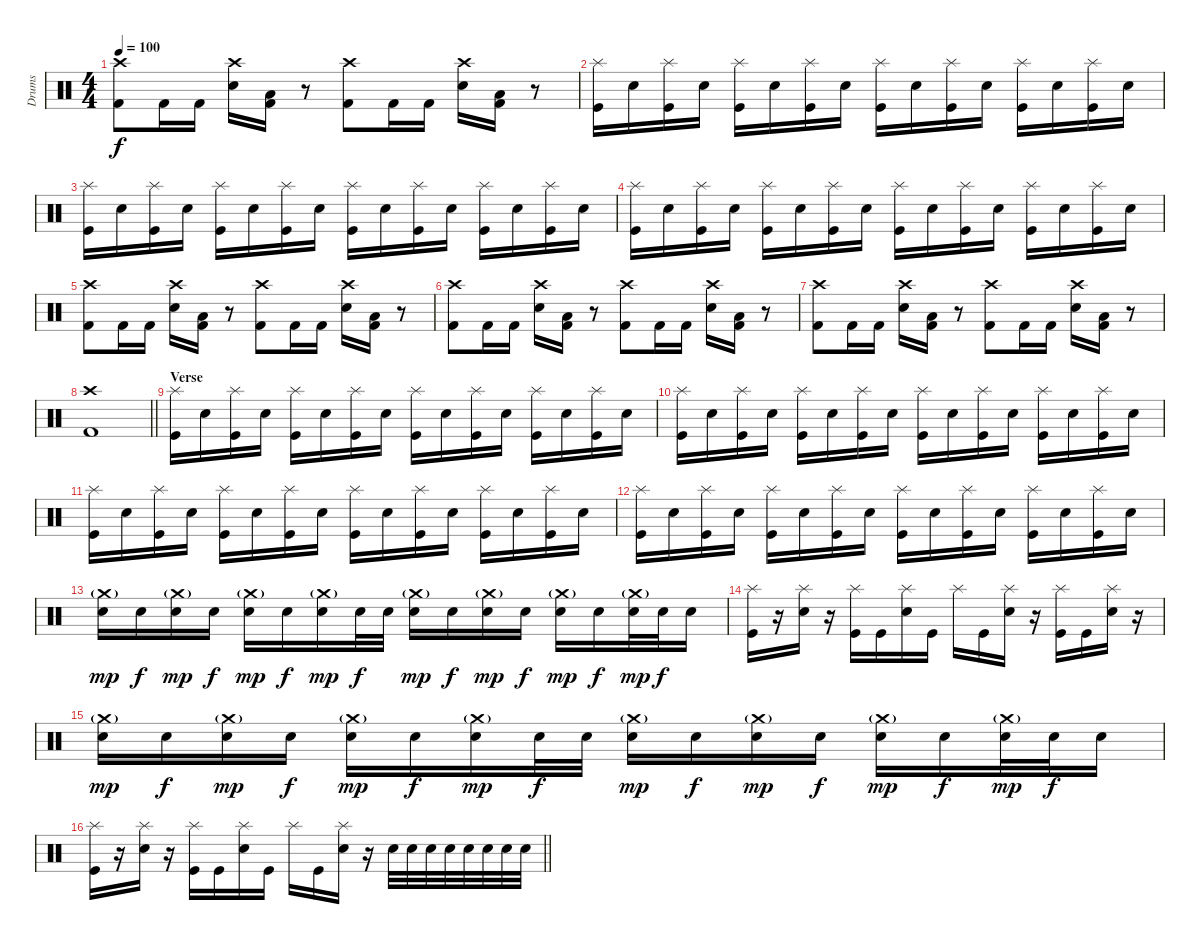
\track ("Drums" "Drums") {instrument percussion}
\staff {score}
\articulation defaults
\ts (4 4)
\tempo 100
\clef neutral
\ks c
("Crash high (hit)" "Kick (hit) 2").8{dy f} "Kick (hit) 2".16 "Kick (hit) 2".16 ("Crash high (hit)" "Electric Snare (hit)").16 ("Low Tom (hit)" "Kick (hit) 2").16 r.8 ("Crash high (hit)" "Kick (hit) 2").8 "Kick (hit) 2".16 "Kick (hit) 2".16 ("Crash high (hit)" "Electric Snare (hit)").16 ("Low Tom (hit)" "Kick (hit) 2").16 r.8 |
("Splash (hit)" "Kick (hit)").16 "Electric Snare (hit)".16 ("Splash (hit)" "Kick (hit)").16 "Electric Snare (hit)".16 ("Splash (hit)" "Kick (hit)").16 "Electric Snare (hit)".16 ("Splash (hit)" "Kick (hit)").16 "Electric Snare (hit)".16 ("Splash (hit)" "Kick (hit)").16 "Electric Snare (hit)".16 ("Splash (hit)" "Kick (hit)").16 "Electric Snare (hit)".16 ("Splash (hit)" "Kick (hit)").16 "Electric Snare (hit)".16 ("Splash (hit)" "Kick (hit)").16 "Electric Snare (hit)".16 |
("Splash (hit)" "Kick (hit)").16 "Electric Snare (hit)".16 ("Splash (hit)" "Kick (hit)").16 "Electric Snare (hit)".16 ("Splash (hit)" "Kick (hit)").16 "Electric Snare (hit)".16 ("Splash (hit)" "Kick (hit)").16 "Electric Snare (hit)".16 ("Splash (hit)" "Kick (hit)").16 "Electric Snare (hit)".16 ("Splash (hit)" "Kick (hit)").16 "Electric Snare (hit)".16 ("Splash (hit)" "Kick (hit)").16 "Electric Snare (hit)".16 ("Splash (hit)" "Kick (hit)").16 "Electric Snare (hit)".16 |
("Splash (hit)" "Kick (hit)").16 "Electric Snare (hit)".16 ("Splash (hit)" "Kick (hit)").16 "Electric Snare (hit)".16 ("Splash (hit)" "Kick (hit)").16 "Electric Snare (hit)".16 ("Splash (hit)" "Kick (hit)").16 "Electric Snare (hit)".16 ("Splash (hit)" "Kick (hit)").16 "Electric Snare (hit)".16 ("Splash (hit)" "Kick (hit)").16 "Electric Snare (hit)".16 ("Splash (hit)" "Kick (hit)").16 "Electric Snare (hit)".16 ("Splash (hit)" "Kick (hit)").16 "Electric Snare (hit)".16 |
("Crash high (hit)" "Kick (hit) 2").8 "Kick (hit) 2".16 "Kick (hit) 2".16 ("Crash high (hit)" "Electric Snare (hit)").16 ("Low Tom (hit)" "Kick (hit) 2").16 r.8 ("Crash high (hit)" "Kick (hit) 2").8 "Kick (hit) 2".16 "Kick (hit) 2".16 ("Crash high (hit)" "Electric Snare (hit)").16 ("Low Tom (hit)" "Kick (hit) 2").16 r.8 |
("Crash high (hit)" "Kick (hit) 2").8 "Kick (hit) 2".16 "Kick (hit) 2".16 ("Crash high (hit)" "Electric Snare (hit)").16 ("Low Tom (hit)" "Kick (hit) 2").16 r.8 ("Crash high (hit)" "Kick (hit) 2").8 "Kick (hit) 2".16 "Kick (hit) 2".16 ("Crash high (hit)" "Electric Snare (hit)").16 ("Low Tom (hit)" "Kick (hit) 2").16 r.8 |
("Crash high (hit)" "Kick (hit) 2").8 "Kick (hit) 2".16 "Kick (hit) 2".16 ("Crash high (hit)" "Electric Snare (hit)").16 ("Low Tom (hit)" "Kick (hit) 2").16 r.8 ("Crash high (hit)" "Kick (hit) 2").8 "Kick (hit) 2".16 "Kick (hit) 2".16 ("Crash high (hit)" "Electric Snare (hit)").16 ("Low Tom (hit)" "Kick (hit) 2").16 r.8 |
\barLineRight lightlight
("Crash high (hit)" "Kick (hit) 2").1 |
\section ("" "Verse")
("Splash (hit)" "Kick (hit)").16 "Electric Snare (hit)".16 ("Splash (hit)" "Kick (hit)").16 "Electric Snare (hit)".16 ("Splash (hit)" "Kick (hit)").16 "Electric Snare (hit)".16 ("Splash (hit)" "Kick (hit)").16 "Electric Snare (hit)".16 ("Splash (hit)" "Kick (hit)").16 "Electric Snare (hit)".16 ("Splash (hit)" "Kick (hit)").16 "Electric Snare (hit)".16 ("Splash (hit)" "Kick (hit)").16 "Electric Snare (hit)".16 ("Splash (hit)" "Kick (hit)").16 "Electric Snare (hit)".16 |
("Splash (hit)" "Kick (hit)").16 "Electric Snare (hit)".16 ("Splash (hit)" "Kick (hit)").16 "Electric Snare (hit)".16 ("Splash (hit)" "Kick (hit)").16 "Electric Snare (hit)".16 ("Splash (hit)" "Kick (hit)").16 "Electric Snare (hit)".16 ("Splash (hit)" "Kick (hit)").16 "Electric Snare (hit)".16 ("Splash (hit)" "Kick (hit)").16 "Electric Snare (hit)".16 ("Splash (hit)" "Kick (hit)").16 "Electric Snare (hit)".16 ("Splash (hit)" "Kick (hit)").16 "Electric Snare (hit)".16 |
("Splash (hit)" "Kick (hit)").16 "Electric Snare (hit)".16 ("Splash (hit)" "Kick (hit)").16 "Electric Snare (hit)".16 ("Splash (hit)" "Kick (hit)").16 "Electric Snare (hit)".16 ("Splash (hit)" "Kick (hit)").16 "Electric Snare (hit)".16 ("Splash (hit)" "Kick (hit)").16 "Electric Snare (hit)".16 ("Splash (hit)" "Kick (hit)").16 "Electric Snare (hit)".16 ("Splash (hit)" "Kick (hit)").16 "Electric Snare (hit)".16 ("Splash (hit)" "Kick (hit)").16 "Electric Snare (hit)".16 |
("Splash (hit)" "Kick (hit)").16 "Electric Snare (hit)".16 ("Splash (hit)" "Kick (hit)").16 "Electric Snare (hit)".16 ("Splash (hit)" "Kick (hit)").16 "Electric Snare (hit)".16 ("Splash (hit)" "Kick (hit)").16 "Electric Snare (hit)".16 ("Splash (hit)" "Kick (hit)").16 "Electric Snare (hit)".16 ("Splash (hit)" "Kick (hit)").16 "Electric Snare (hit)".16 ("Splash (hit)" "Kick (hit)").16 "Electric Snare (hit)".16 ("Splash (hit)" "Kick (hit)").16 "Electric Snare (hit)".16 |
("Crash medium (hit)"{g} "Electric Snare (hit)").16{dy mp} "Electric Snare (hit)".16{dy f} ("Crash medium (hit)"{g} "Electric Snare (hit)").16{dy mp} "Electric Snare (hit)".16{dy f} ("Crash medium (hit)"{g} "Electric Snare (hit)").16{dy mp} "Electric Snare (hit)".16{dy f} ("Crash medium (hit)"{g} "Electric Snare (hit)").16{dy mp} "Electric Snare (hit)".32{dy f} "Electric Snare (hit)".32 ("Crash medium (hit)"{g} "Electric Snare (hit)").16{dy mp} "Electric Snare (hit)".16{dy f} ("Crash medium (hit)"{g} "Electric Snare (hit)").16{dy mp} "Electric Snare (hit)".16{dy f} ("Crash medium (hit)"{g} "Electric Snare (hit)").16{dy mp} "Electric Snare (hit)".16{dy f} ("Crash medium (hit)"{g} "Electric Snare (hit)").32{dy mp} "Electric Snare (hit)".32{dy f} "Electric Snare (hit)".16 |
("Splash (hit)" "Kick (hit)").16 r.16 ("Splash (hit)" "Electric Snare (hit)").16 r.16 ("Splash (hit)" "Kick (hit)").16 "Kick (hit)".16 ("Splash (hit)" "Electric Snare (hit)").16 "Kick (hit)".16 "Splash (hit)".16 "Kick (hit)".16 ("Splash (hit)" "Electric Snare (hit)").16 r.16 ("Splash (hit)" "Kick (hit)").16 "Kick (hit)".16 ("Splash (hit)" "Electric Snare (hit)").16 r.16 |
("Crash medium (hit)"{g} "Electric Snare (hit)").16{dy mp} "Electric Snare (hit)".16{dy f} ("Crash medium (hit)"{g} "Electric Snare (hit)").16{dy mp} "Electric Snare (hit)".16{dy f} ("Crash medium (hit)"{g} "Electric Snare (hit)").16{dy mp} "Electric Snare (hit)".16{dy f} ("Crash medium (hit)"{g} "Electric Snare (hit)").16{dy mp} "Electric Snare (hit)".32{dy f} "Electric Snare (hit)".32 ("Crash medium (hit)"{g} "Electric Snare (hit)").16{dy mp} "Electric Snare (hit)".16{dy f} ("Crash medium (hit)"{g} "Electric Snare (hit)").16{dy mp} "Electric Snare (hit)".16{dy f} ("Crash medium (hit)"{g} "Electric Snare (hit)").16{dy mp} "Electric Snare (hit)".16{dy f} ("Crash medium (hit)"{g} "Electric Snare (hit)").32{dy mp} "Electric Snare (hit)".32{dy f} "Electric Snare (hit)".16 |
\barLineRight lightlight
("Splash (hit)" "Kick (hit)").16 r.16 ("Splash (hit)" "Electric Snare (hit)").16 r.16 ("Splash (hit)" "Kick (hit)").16 "Kick (hit)".16 ("Splash (hit)" "Electric Snare (hit)").16 "Kick (hit)".16 "Splash (hit)".16 "Kick (hit)".16 ("Splash (hit)" "Electric Snare (hit)").16 r.16 "Electric Snare (hit)".32 "Electric Snare (hit)".32 "Electric Snare (hit)".32 "Electric Snare (hit)".32 "Electric Snare (hit)".32 "Electric Snare (hit)".32 "Electric Snare (hit)".32 "Electric Snare (hit)".32
